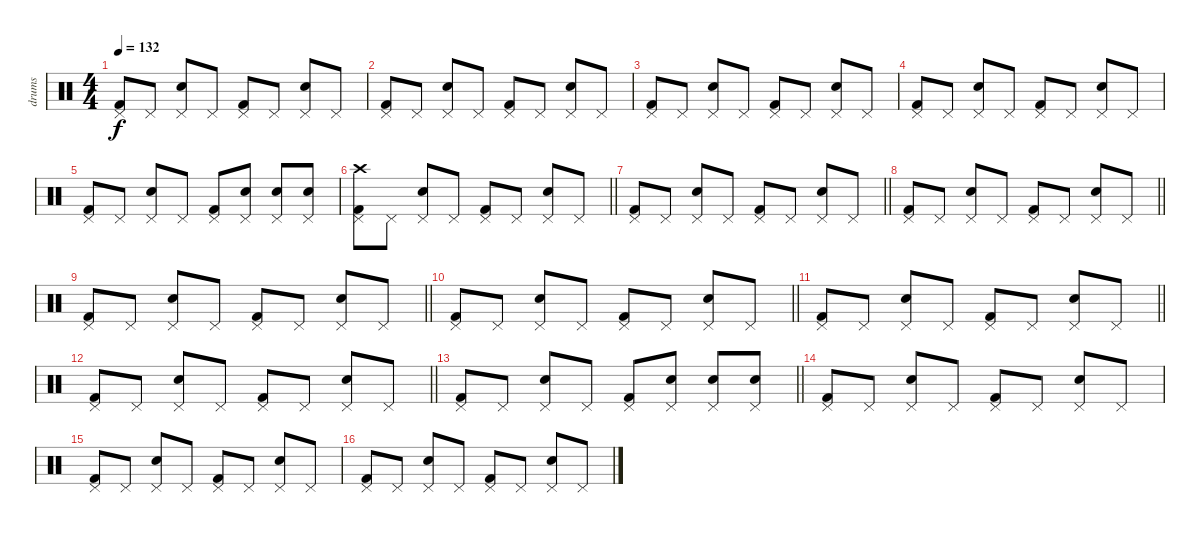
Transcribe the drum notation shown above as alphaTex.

\track ("drums" "drums") {instrument percussion}
\staff {score}
\articulation defaults
\ts (4 4)
\tempo 132
\clef neutral
\ks c
("Kick (hit) 2" "Pedal Hi-Hat (hit)").8{dy f} "Pedal Hi-Hat (hit)".8 ("Electric Snare (hit)" "Pedal Hi-Hat (hit)").8 "Pedal Hi-Hat (hit)".8 ("Kick (hit) 2" "Pedal Hi-Hat (hit)").8 "Pedal Hi-Hat (hit)".8 ("Electric Snare (hit)" "Pedal Hi-Hat (hit)").8 "Pedal Hi-Hat (hit)".8 |
("Kick (hit) 2" "Pedal Hi-Hat (hit)").8 "Pedal Hi-Hat (hit)".8 ("Electric Snare (hit)" "Pedal Hi-Hat (hit)").8 "Pedal Hi-Hat (hit)".8 ("Kick (hit) 2" "Pedal Hi-Hat (hit)").8 "Pedal Hi-Hat (hit)".8 ("Electric Snare (hit)" "Pedal Hi-Hat (hit)").8 "Pedal Hi-Hat (hit)".8 |
("Kick (hit) 2" "Pedal Hi-Hat (hit)").8 "Pedal Hi-Hat (hit)".8 ("Electric Snare (hit)" "Pedal Hi-Hat (hit)").8 "Pedal Hi-Hat (hit)".8 ("Kick (hit) 2" "Pedal Hi-Hat (hit)").8 "Pedal Hi-Hat (hit)".8 ("Electric Snare (hit)" "Pedal Hi-Hat (hit)").8 "Pedal Hi-Hat (hit)".8 |
("Kick (hit) 2" "Pedal Hi-Hat (hit)").8 "Pedal Hi-Hat (hit)".8 ("Electric Snare (hit)" "Pedal Hi-Hat (hit)").8 "Pedal Hi-Hat (hit)".8 ("Kick (hit) 2" "Pedal Hi-Hat (hit)").8 "Pedal Hi-Hat (hit)".8 ("Electric Snare (hit)" "Pedal Hi-Hat (hit)").8 "Pedal Hi-Hat (hit)".8 |
("Kick (hit) 2" "Pedal Hi-Hat (hit)").8 "Pedal Hi-Hat (hit)".8 ("Electric Snare (hit)" "Pedal Hi-Hat (hit)").8 "Pedal Hi-Hat (hit)".8 ("Kick (hit) 2" "Pedal Hi-Hat (hit)").8 ("Electric Snare (hit)" "Pedal Hi-Hat (hit)").8 ("Electric Snare (hit)" "Pedal Hi-Hat (hit)").8 ("Electric Snare (hit)" "Pedal Hi-Hat (hit)").8 |
\barLineRight lightlight
("Kick (hit) 2" "Pedal Hi-Hat (hit)" "Crash high (hit)").8 "Pedal Hi-Hat (hit)".8 ("Electric Snare (hit)" "Pedal Hi-Hat (hit)").8 "Pedal Hi-Hat (hit)".8 ("Kick (hit) 2" "Pedal Hi-Hat (hit)").8 "Pedal Hi-Hat (hit)".8 ("Electric Snare (hit)" "Pedal Hi-Hat (hit)").8 "Pedal Hi-Hat (hit)".8 |
\barLineRight lightlight
("Kick (hit) 2" "Pedal Hi-Hat (hit)").8 "Pedal Hi-Hat (hit)".8 ("Electric Snare (hit)" "Pedal Hi-Hat (hit)").8 "Pedal Hi-Hat (hit)".8 ("Kick (hit) 2" "Pedal Hi-Hat (hit)").8 "Pedal Hi-Hat (hit)".8 ("Electric Snare (hit)" "Pedal Hi-Hat (hit)").8 "Pedal Hi-Hat (hit)".8 |
\barLineRight lightlight
("Kick (hit) 2" "Pedal Hi-Hat (hit)").8 "Pedal Hi-Hat (hit)".8 ("Electric Snare (hit)" "Pedal Hi-Hat (hit)").8 "Pedal Hi-Hat (hit)".8 ("Kick (hit) 2" "Pedal Hi-Hat (hit)").8 "Pedal Hi-Hat (hit)".8 ("Electric Snare (hit)" "Pedal Hi-Hat (hit)").8 "Pedal Hi-Hat (hit)".8 |
\barLineRight lightlight
("Kick (hit) 2" "Pedal Hi-Hat (hit)").8 "Pedal Hi-Hat (hit)".8 ("Electric Snare (hit)" "Pedal Hi-Hat (hit)").8 "Pedal Hi-Hat (hit)".8 ("Kick (hit) 2" "Pedal Hi-Hat (hit)").8 "Pedal Hi-Hat (hit)".8 ("Electric Snare (hit)" "Pedal Hi-Hat (hit)").8 "Pedal Hi-Hat (hit)".8 |
\barLineRight lightlight
("Kick (hit) 2" "Pedal Hi-Hat (hit)").8 "Pedal Hi-Hat (hit)".8 ("Electric Snare (hit)" "Pedal Hi-Hat (hit)").8 "Pedal Hi-Hat (hit)".8 ("Kick (hit) 2" "Pedal Hi-Hat (hit)").8 "Pedal Hi-Hat (hit)".8 ("Electric Snare (hit)" "Pedal Hi-Hat (hit)").8 "Pedal Hi-Hat (hit)".8 |
\barLineRight lightlight
("Kick (hit) 2" "Pedal Hi-Hat (hit)").8 "Pedal Hi-Hat (hit)".8 ("Electric Snare (hit)" "Pedal Hi-Hat (hit)").8 "Pedal Hi-Hat (hit)".8 ("Kick (hit) 2" "Pedal Hi-Hat (hit)").8 "Pedal Hi-Hat (hit)".8 ("Electric Snare (hit)" "Pedal Hi-Hat (hit)").8 "Pedal Hi-Hat (hit)".8 |
\barLineRight lightlight
("Kick (hit) 2" "Pedal Hi-Hat (hit)").8 "Pedal Hi-Hat (hit)".8 ("Electric Snare (hit)" "Pedal Hi-Hat (hit)").8 "Pedal Hi-Hat (hit)".8 ("Kick (hit) 2" "Pedal Hi-Hat (hit)").8 "Pedal Hi-Hat (hit)".8 ("Electric Snare (hit)" "Pedal Hi-Hat (hit)").8 "Pedal Hi-Hat (hit)".8 |
\barLineRight lightlight
("Kick (hit) 2" "Pedal Hi-Hat (hit)").8 "Pedal Hi-Hat (hit)".8 ("Electric Snare (hit)" "Pedal Hi-Hat (hit)").8 "Pedal Hi-Hat (hit)".8 ("Kick (hit) 2" "Pedal Hi-Hat (hit)").8 ("Electric Snare (hit)" "Pedal Hi-Hat (hit)").8 ("Electric Snare (hit)" "Pedal Hi-Hat (hit)").8 ("Electric Snare (hit)" "Pedal Hi-Hat (hit)").8 |
("Kick (hit) 2" "Pedal Hi-Hat (hit)").8 "Pedal Hi-Hat (hit)".8 ("Electric Snare (hit)" "Pedal Hi-Hat (hit)").8 "Pedal Hi-Hat (hit)".8 ("Kick (hit) 2" "Pedal Hi-Hat (hit)").8 "Pedal Hi-Hat (hit)".8 ("Electric Snare (hit)" "Pedal Hi-Hat (hit)").8 "Pedal Hi-Hat (hit)".8 |
("Kick (hit) 2" "Pedal Hi-Hat (hit)").8 "Pedal Hi-Hat (hit)".8 ("Electric Snare (hit)" "Pedal Hi-Hat (hit)").8 "Pedal Hi-Hat (hit)".8 ("Kick (hit) 2" "Pedal Hi-Hat (hit)").8 "Pedal Hi-Hat (hit)".8 ("Electric Snare (hit)" "Pedal Hi-Hat (hit)").8 "Pedal Hi-Hat (hit)".8 |
("Kick (hit) 2" "Pedal Hi-Hat (hit)").8 "Pedal Hi-Hat (hit)".8 ("Electric Snare (hit)" "Pedal Hi-Hat (hit)").8 "Pedal Hi-Hat (hit)".8 ("Kick (hit) 2" "Pedal Hi-Hat (hit)").8 "Pedal Hi-Hat (hit)".8 ("Electric Snare (hit)" "Pedal Hi-Hat (hit)").8 "Pedal Hi-Hat (hit)".8
